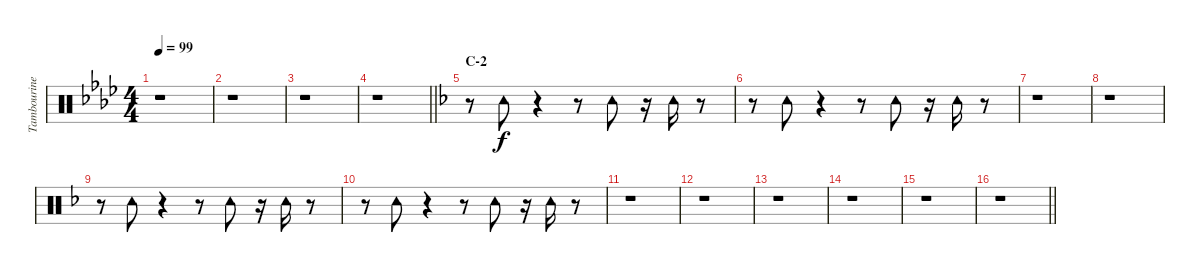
\track ("Tambourine" "Tambourine") {instrument percussion}
\staff {score}
\articulation defaults
\ts (4 4)
\tempo 99
\clef neutral
\ks ab
r.1{dy f} |
r.1 |
r.1 |
\barLineRight lightlight
r.1 |
\section ("" "C-2")
\ks f
r.8 "Tambourine (hit)".8 r.4 r.8 "Tambourine (hit)".8 r.16 "Tambourine (hit)".16 r.8 |
r.8 "Tambourine (hit)".8 r.4 r.8 "Tambourine (hit)".8 r.16 "Tambourine (hit)".16 r.8 |
r.1 |
r.1 |
r.8 "Tambourine (hit)".8 r.4 r.8 "Tambourine (hit)".8 r.16 "Tambourine (hit)".16 r.8 |
r.8 "Tambourine (hit)".8 r.4 r.8 "Tambourine (hit)".8 r.16 "Tambourine (hit)".16 r.8 |
r.1 |
r.1 |
r.1 |
r.1 |
r.1 |
\barLineRight lightlight
r.1
